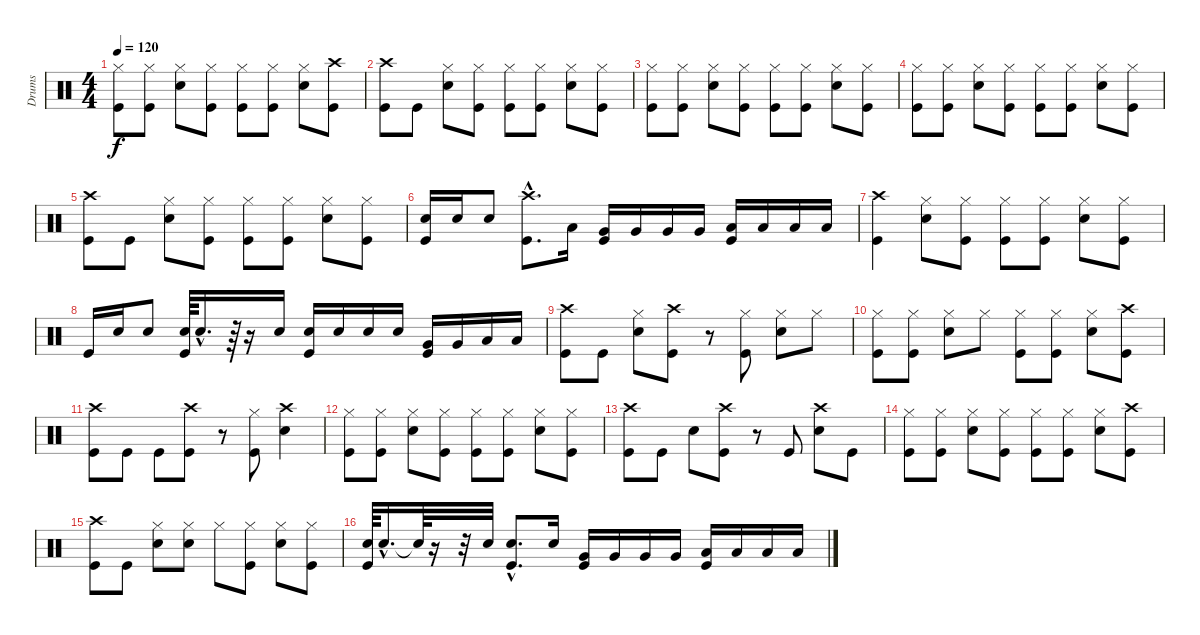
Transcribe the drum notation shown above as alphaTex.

\track ("Drums" "Drums") {instrument percussion}
\staff {score}
\articulation defaults
\ts (4 4)
\tempo 120
\clef neutral
\ks c
("Hi-Hat (closed)" "Kick (hit)").8{dy f} ("Hi-Hat (closed)" "Kick (hit)").8 ("Hi-Hat (closed)" "Snare (hit) 2").8 ("Hi-Hat (closed)" "Kick (hit)").8 ("Hi-Hat (closed)" "Kick (hit)").8 ("Hi-Hat (closed)" "Kick (hit)").8 ("Hi-Hat (closed)" "Snare (hit) 2").8 ("Crash high (hit)" "Kick (hit)").8 |
("Crash high (hit)" "Kick (hit)").8 "Kick (hit)".8 ("Hi-Hat (closed)" "Snare (hit) 2").8 ("Hi-Hat (closed)" "Kick (hit)").8 ("Hi-Hat (closed)" "Kick (hit)").8 ("Hi-Hat (closed)" "Kick (hit)").8 ("Hi-Hat (closed)" "Snare (hit) 2").8 ("Hi-Hat (closed)" "Kick (hit)").8 |
("Hi-Hat (closed)" "Kick (hit)").8 ("Hi-Hat (closed)" "Kick (hit)").8 ("Hi-Hat (closed)" "Snare (hit) 2").8 ("Hi-Hat (closed)" "Kick (hit)").8 ("Hi-Hat (closed)" "Kick (hit)").8 ("Hi-Hat (closed)" "Kick (hit)").8 ("Hi-Hat (closed)" "Snare (hit) 2").8 ("Hi-Hat (closed)" "Kick (hit)").8 |
("Hi-Hat (closed)" "Kick (hit)").8 ("Hi-Hat (closed)" "Kick (hit)").8 ("Hi-Hat (closed)" "Snare (hit) 2").8 ("Hi-Hat (closed)" "Kick (hit)").8 ("Hi-Hat (closed)" "Kick (hit)").8 ("Hi-Hat (closed)" "Kick (hit)").8 ("Hi-Hat (closed)" "Snare (hit) 2").8 ("Hi-Hat (closed)" "Kick (hit)").8 |
("Crash high (hit)" "Kick (hit)").8 "Kick (hit)".8 ("Hi-Hat (closed)" "Snare (hit) 2").8 ("Hi-Hat (closed)" "Kick (hit)").8 ("Hi-Hat (closed)" "Kick (hit)").8 ("Hi-Hat (closed)" "Kick (hit)").8 ("Hi-Hat (closed)" "Snare (hit) 2").8 ("Hi-Hat (closed)" "Kick (hit)").8 |
("Snare (hit) 2" "Kick (hit)").16 "Snare (hit) 2".16 "Snare (hit) 2".8 ("Crash high (hit)"{hac} "Kick (hit)"{hac}).8{d} "Low Tom (hit)".16 ("Kick (hit)" "Very Low Tom (hit)").16 "Very Low Tom (hit)".16 "Very Low Tom (hit)".16 "Very Low Tom (hit)".16 ("Kick (hit)" "Low Floor Tom (hit)").16 "Low Floor Tom (hit)".16 "Low Floor Tom (hit)".16 "Low Floor Tom (hit)".16 |
("Crash high (hit)" "Kick (hit)").4 ("Hi-Hat (closed)" "Snare (hit) 2").8 ("Hi-Hat (closed)" "Kick (hit)").8 ("Hi-Hat (closed)" "Kick (hit)").8 ("Hi-Hat (closed)" "Kick (hit)").8 ("Hi-Hat (closed)" "Snare (hit) 2").8 ("Hi-Hat (closed)" "Kick (hit)").8 |
"Kick (hit)".16 "Snare (hit) 2".16 "Snare (hit) 2".8 ("Snare (hit) 2" "Kick (hit)").64 "Snare (hit) 2"{hac}.16{d} r.64 r.16 "Snare (hit) 2".16 ("Snare (hit) 2" "Kick (hit)").16 "Snare (hit) 2".16 "Snare (hit) 2".16 "Snare (hit) 2".16 ("Kick (hit)" "Very Low Tom (hit)").16 "Very Low Tom (hit)".16 "Low Floor Tom (hit)".16 "Low Floor Tom (hit)".16 |
("Crash high (hit)" "Kick (hit)").8 "Kick (hit)".8 ("Hi-Hat (closed)" "Snare (hit) 2").8 ("Crash high (hit)" "Kick (hit)").8 r.8 ("Hi-Hat (closed)" "Kick (hit)").8 ("Hi-Hat (closed)" "Snare (hit) 2").8 "Hi-Hat (closed)".8 |
("Hi-Hat (closed)" "Kick (hit)").8 ("Hi-Hat (closed)" "Kick (hit)").8 ("Hi-Hat (closed)" "Snare (hit) 2").8 "Hi-Hat (closed)".8 ("Hi-Hat (closed)" "Kick (hit)").8 ("Hi-Hat (closed)" "Kick (hit)").8 ("Hi-Hat (closed)" "Snare (hit) 2").8 ("Crash high (hit)" "Kick (hit)").8 |
("Crash high (hit)" "Kick (hit)").8 "Kick (hit)".8 "Kick (hit)".8 ("Crash high (hit)" "Kick (hit)").8 r.8 ("Hi-Hat (closed)" "Kick (hit)").8 ("Crash high (hit)" "Snare (hit) 2").4 |
("Hi-Hat (closed)" "Kick (hit)").8 ("Hi-Hat (closed)" "Kick (hit)").8 ("Hi-Hat (closed)" "Snare (hit) 2").8 ("Hi-Hat (closed)" "Kick (hit)").8 ("Hi-Hat (closed)" "Kick (hit)").8 ("Hi-Hat (closed)" "Kick (hit)").8 ("Hi-Hat (closed)" "Snare (hit) 2").8 ("Hi-Hat (closed)" "Kick (hit)").8 |
("Crash high (hit)" "Kick (hit)").8 "Kick (hit)".8 "Snare (hit) 2".8 ("Crash high (hit)" "Kick (hit)").8 r.8 "Kick (hit)".8 ("Crash high (hit)" "Snare (hit) 2").8 "Kick (hit)".8 |
("Hi-Hat (closed)" "Kick (hit)").8 ("Hi-Hat (closed)" "Kick (hit)").8 ("Hi-Hat (closed)" "Snare (hit) 2").8 ("Hi-Hat (closed)" "Kick (hit)").8 ("Hi-Hat (closed)" "Kick (hit)").8 ("Hi-Hat (closed)" "Kick (hit)").8 ("Hi-Hat (closed)" "Snare (hit) 2").8 ("Crash high (hit)" "Kick (hit)").8 |
("Crash high (hit)" "Kick (hit)").8 "Kick (hit)".8 ("Hi-Hat (closed)" "Snare (hit) 2").8 ("Hi-Hat (closed)" "Snare (hit) 2").8 "Hi-Hat (closed)".8 ("Hi-Hat (closed)" "Kick (hit)").8 ("Hi-Hat (closed)" "Snare (hit) 2").8 ("Hi-Hat (closed)" "Kick (hit)").8 |
("Snare (hit) 2" "Kick (hit)").64 "Snare (hit) 2"{hac}.16{d} "Snare (hit)"{t}.64 r.16 r.32 "Snare (hit) 2".32 ("Snare (hit) 2"{hac} "Kick (hit)"{hac}).8{d} "Snare (hit) 2".16 ("Kick (hit)" "Very Low Tom (hit)").16 "Very Low Tom (hit)".16 "Very Low Tom (hit)".16 "Very Low Tom (hit)".16 ("Kick (hit)" "Low Floor Tom (hit)").16 "Low Floor Tom (hit)".16 "Low Floor Tom (hit)".16 "Low Floor Tom (hit)".16
